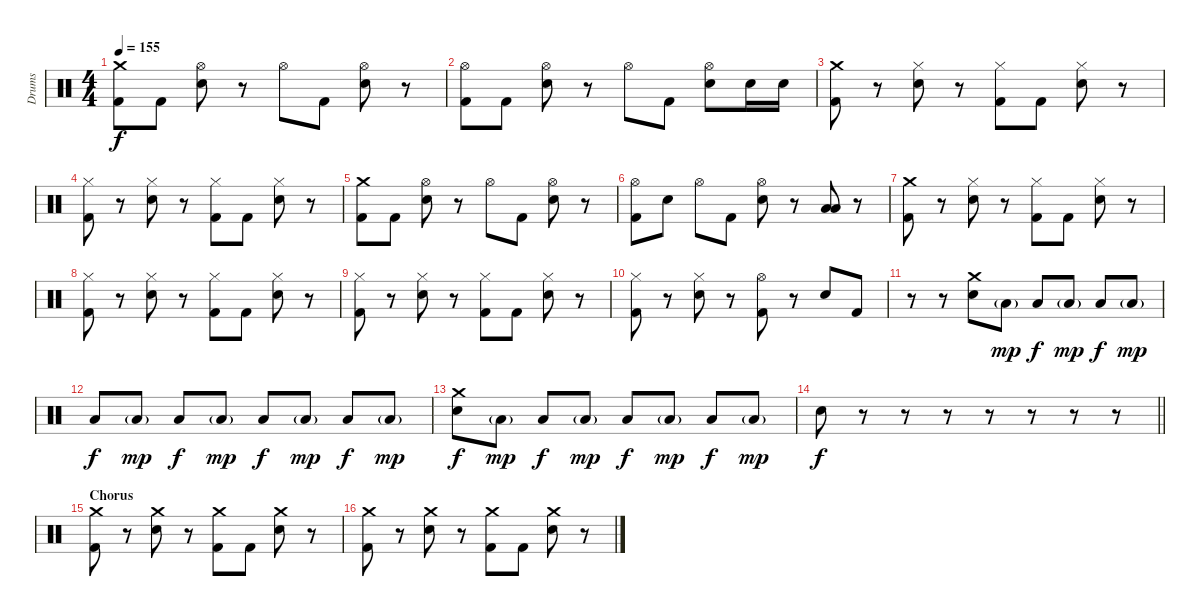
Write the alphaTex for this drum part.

\track ("Drums" "Drums") {instrument percussion}
\staff {score}
\articulation defaults
\ts (4 4)
\tempo 155
\clef neutral
\ks c
("Crash medium (hit)" "Kick (hit) 2").8{dy f volume 16} "Kick (hit) 2".8 ("Hi-Hat (open)" "Electric Snare (hit)").8 r.8 "Hi-Hat (open)".8 "Kick (hit) 2".8 ("Hi-Hat (open)" "Electric Snare (hit)").8 r.8 |
("Hi-Hat (open)" "Kick (hit) 2").8 "Kick (hit) 2".8 ("Hi-Hat (open)" "Electric Snare (hit)").8 r.8 "Hi-Hat (open)".8 "Kick (hit) 2".8 ("Hi-Hat (open)" "Electric Snare (hit)").8 "Electric Snare (hit)".16 "Electric Snare (hit)".16 |
("Crash medium (hit)" "Kick (hit) 2").8 r.8 ("Hi-Hat (closed)" "Electric Snare (hit)").8 r.8 ("Hi-Hat (closed)" "Kick (hit) 2").8 "Kick (hit) 2".8 ("Hi-Hat (closed)" "Electric Snare (hit)").8 r.8 |
("Hi-Hat (closed)" "Kick (hit) 2").8 r.8 ("Hi-Hat (closed)" "Electric Snare (hit)").8 r.8 ("Hi-Hat (closed)" "Kick (hit) 2").8 "Kick (hit) 2".8 ("Hi-Hat (closed)" "Electric Snare (hit)").8 r.8 |
("Crash medium (hit)" "Kick (hit) 2").8{volume 16} "Kick (hit) 2".8 ("Hi-Hat (open)" "Electric Snare (hit)").8 r.8 "Hi-Hat (open)".8 "Kick (hit) 2".8 ("Hi-Hat (open)" "Electric Snare (hit)").8 r.8 |
("Hi-Hat (open)" "Kick (hit) 2").8 "Electric Snare (hit)".8 "Hi-Hat (open)".8 "Kick (hit) 2".8 ("Hi-Hat (open)" "Electric Snare (hit)").8 r.8 ("Low Tom (hit)" "Low Tom (hit)").8 r.8 |
("Crash medium (hit)" "Kick (hit) 2").8 r.8 ("Hi-Hat (closed)" "Electric Snare (hit)").8 r.8 ("Hi-Hat (closed)" "Kick (hit) 2").8 "Kick (hit) 2".8 ("Hi-Hat (closed)" "Electric Snare (hit)").8 r.8 |
("Hi-Hat (closed)" "Kick (hit) 2").8 r.8 ("Hi-Hat (closed)" "Electric Snare (hit)").8 r.8 ("Hi-Hat (closed)" "Kick (hit) 2").8 "Kick (hit) 2".8 ("Hi-Hat (closed)" "Electric Snare (hit)").8 r.8 |
("Hi-Hat (closed)" "Kick (hit) 2").8 r.8 ("Hi-Hat (closed)" "Electric Snare (hit)").8 r.8 ("Hi-Hat (closed)" "Kick (hit) 2").8 "Kick (hit) 2".8 ("Hi-Hat (closed)" "Electric Snare (hit)").8 r.8 |
("Hi-Hat (closed)" "Kick (hit) 2").8 r.8 ("Hi-Hat (closed)" "Electric Snare (hit)").8 r.8 ("Hi-Hat (open)" "Kick (hit) 2").8 r.8 "Electric Snare (hit)".8 "Kick (hit) 2".8 |
r.8 r.8 ("Crash medium (hit)" "Electric Snare (hit)").8 "Low Tom (hit)"{g}.8{dy mp} "Low Tom (hit)".8{dy f} "Low Tom (hit)"{g}.8{dy mp} "Low Tom (hit)".8{dy f} "Low Tom (hit)"{g}.8{dy mp} |
"Low Tom (hit)".8{dy f} "Low Tom (hit)"{g}.8{dy mp} "Low Tom (hit)".8{dy f} "Low Tom (hit)"{g}.8{dy mp} "Low Tom (hit)".8{dy f} "Low Tom (hit)"{g}.8{dy mp} "Low Tom (hit)".8{dy f} "Low Tom (hit)"{g}.8{dy mp} |
("Crash medium (hit)" "Electric Snare (hit)").8{dy f} "Low Tom (hit)"{g}.8{dy mp} "Low Tom (hit)".8{dy f} "Low Tom (hit)"{g}.8{dy mp} "Low Tom (hit)".8{dy f} "Low Tom (hit)"{g}.8{dy mp} "Low Tom (hit)".8{dy f} "Low Tom (hit)"{g}.8{dy mp} |
\barLineRight lightlight "Electric Snare (hit)".8{dy f}
r.8 r.8 r.8 r.8 r.8 r.8 r.8 |
\section ("" "Chorus")
("Crash medium (hit)" "Kick (hit) 2").8 r.8 ("Crash medium (hit)" "Electric Snare (hit)").8 r.8 ("Crash medium (hit)" "Kick (hit) 2").8 "Kick (hit) 2".8 ("Crash medium (hit)" "Electric Snare (hit)").8 r.8 |
("Crash medium (hit)" "Kick (hit) 2").8 r.8 ("Crash medium (hit)" "Electric Snare (hit)").8 r.8 ("Crash medium (hit)" "Kick (hit) 2").8 "Kick (hit) 2".8 ("Crash medium (hit)" "Electric Snare (hit)").8 r.8
